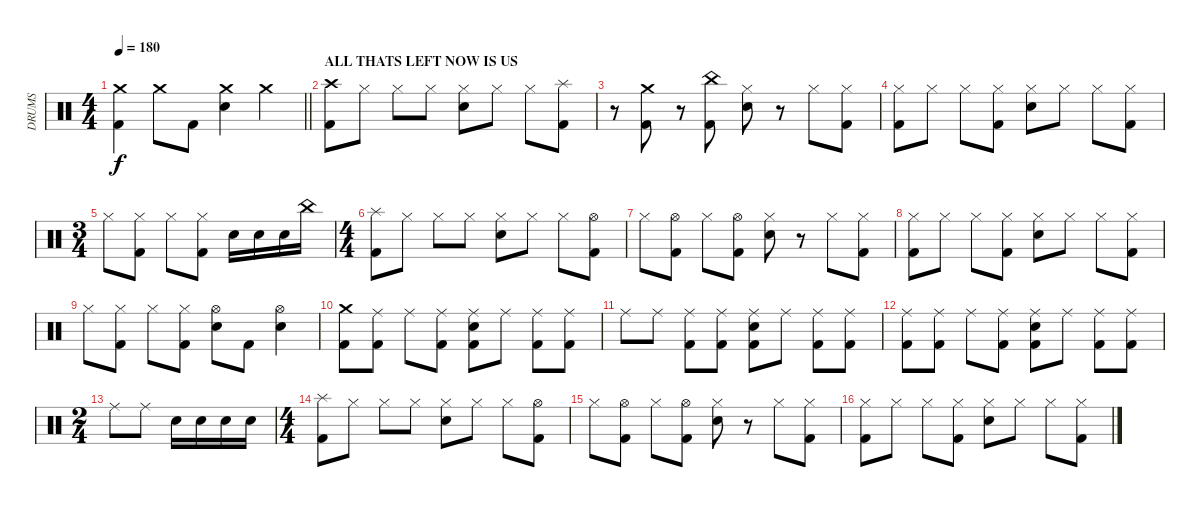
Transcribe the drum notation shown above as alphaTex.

\track ("DRUMS" "DRUMS") {instrument percussion}
\staff {score}
\articulation defaults
\ts (4 4)
\tempo 180
\clef neutral
\barLineRight lightlight
\ks c
("Crash medium (hit)" "Kick (hit) 2").4{dy f} "Crash medium (hit)".8 "Kick (hit) 2".8 ("Crash medium (hit)" "Electric Snare (hit)").4 "Crash medium (hit)".4 |
\section ("" "ALL THATS LEFT NOW IS US")
("Crash high (hit)" "Kick (hit) 2").8 "Hi-Hat (closed)".8 "Hi-Hat (closed)".8 "Hi-Hat (closed)".8 ("Hi-Hat (closed)" "Electric Snare (hit)").8 "Hi-Hat (closed)".8 "Hi-Hat (closed)".8 ("Splash (hit)" "Kick (hit) 2").8 |
r.8 ("Crash medium (hit)" "Kick (hit) 2").8 r.8 ("China (hit)" "Kick (hit) 2").8 ("Hi-Hat (closed)" "Electric Snare (hit)").8 r.8 "Hi-Hat (closed)".8 ("Hi-Hat (closed)" "Kick (hit) 2").8 |
("Hi-Hat (closed)" "Kick (hit) 2").8 "Hi-Hat (closed)".8 "Hi-Hat (closed)".8 ("Hi-Hat (closed)" "Kick (hit) 2").8 ("Hi-Hat (closed)" "Electric Snare (hit)").8 "Hi-Hat (closed)".8 "Hi-Hat (closed)".8 ("Hi-Hat (closed)" "Kick (hit) 2").8 |
\ts (3 4)
"Hi-Hat (closed)".8 ("Hi-Hat (closed)" "Kick (hit) 2").8 "Hi-Hat (closed)".8 ("Hi-Hat (closed)" "Kick (hit) 2").8 "Electric Snare (hit)".16 "Electric Snare (hit)".16 "Electric Snare (hit)".16 "China (hit)".16 |
\ts (4 4)
("Splash (hit)" "Kick (hit) 2").8 "Hi-Hat (closed)".8 "Hi-Hat (closed)".8 "Hi-Hat (closed)".8 ("Hi-Hat (closed)" "Electric Snare (hit)").8 "Hi-Hat (closed)".8 "Hi-Hat (closed)".8 ("Hi-Hat (open)" "Kick (hit) 2").8 |
"Hi-Hat (closed)".8 ("Hi-Hat (open)" "Kick (hit) 2").8 "Hi-Hat (closed)".8 ("Hi-Hat (open)" "Kick (hit) 2").8 ("Hi-Hat (closed)" "Electric Snare (hit)").8 r.8 "Hi-Hat (closed)".8 ("Hi-Hat (closed)" "Kick (hit) 2").8 |
("Hi-Hat (closed)" "Kick (hit) 2").8 "Hi-Hat (closed)".8 "Hi-Hat (closed)".8 ("Hi-Hat (closed)" "Kick (hit) 2").8 ("Hi-Hat (closed)" "Electric Snare (hit)").8 "Hi-Hat (closed)".8 "Hi-Hat (closed)".8 ("Hi-Hat (closed)" "Kick (hit) 2").8 |
"Hi-Hat (closed)".8 ("Hi-Hat (closed)" "Kick (hit) 2").8 "Hi-Hat (closed)".8 ("Hi-Hat (closed)" "Kick (hit) 2").8 ("Hi-Hat (open)" "Electric Snare (hit)").8 "Kick (hit) 2".8 ("Hi-Hat (open)" "Electric Snare (hit)").4 |
("Crash medium (hit)" "Kick (hit) 2").8 ("Ride (middle)" "Kick (hit) 2").8 "Ride (middle)".8 ("Ride (middle)" "Kick (hit) 2").8 ("Ride (middle)" "Electric Snare (hit)" "Kick (hit) 2").8 "Ride (middle)".8 ("Ride (middle)" "Kick (hit) 2").8 ("Ride (middle)" "Kick (hit) 2").8 |
"Ride (middle)".8 "Ride (middle)".8 ("Ride (middle)" "Kick (hit) 2").8 ("Ride (middle)" "Kick (hit) 2").8 ("Ride (middle)" "Electric Snare (hit)" "Kick (hit) 2").8 "Ride (middle)".8 ("Ride (middle)" "Kick (hit) 2").8 ("Ride (middle)" "Kick (hit) 2").8 |
("Ride (middle)" "Kick (hit) 2").8 ("Ride (middle)" "Kick (hit) 2").8 "Ride (middle)".8 ("Ride (middle)" "Kick (hit) 2").8 ("Ride (middle)" "Electric Snare (hit)" "Kick (hit) 2").8 "Ride (middle)".8 ("Ride (middle)" "Kick (hit) 2").8 ("Ride (middle)" "Kick (hit) 2").8 |
\ts (2 4)
"Ride (middle)".8 "Ride (middle)".8 "Electric Snare (hit)".16 "Electric Snare (hit)".16 "Electric Snare (hit)".16 "Electric Snare (hit)".16 |
\ts (4 4)
("Splash (hit)" "Kick (hit) 2").8 "Hi-Hat (closed)".8 "Hi-Hat (closed)".8 "Hi-Hat (closed)".8 ("Hi-Hat (closed)" "Electric Snare (hit)").8 "Hi-Hat (closed)".8 "Hi-Hat (closed)".8 ("Hi-Hat (open)" "Kick (hit) 2").8 |
"Hi-Hat (closed)".8 ("Hi-Hat (open)" "Kick (hit) 2").8 "Hi-Hat (closed)".8 ("Hi-Hat (open)" "Kick (hit) 2").8 ("Hi-Hat (closed)" "Electric Snare (hit)").8 r.8 "Hi-Hat (closed)".8 ("Hi-Hat (closed)" "Kick (hit) 2").8 |
("Hi-Hat (closed)" "Kick (hit) 2").8 "Hi-Hat (closed)".8 "Hi-Hat (closed)".8 ("Hi-Hat (closed)" "Kick (hit) 2").8 ("Hi-Hat (closed)" "Electric Snare (hit)").8 "Hi-Hat (closed)".8 "Hi-Hat (closed)".8 ("Hi-Hat (closed)" "Kick (hit) 2").8
